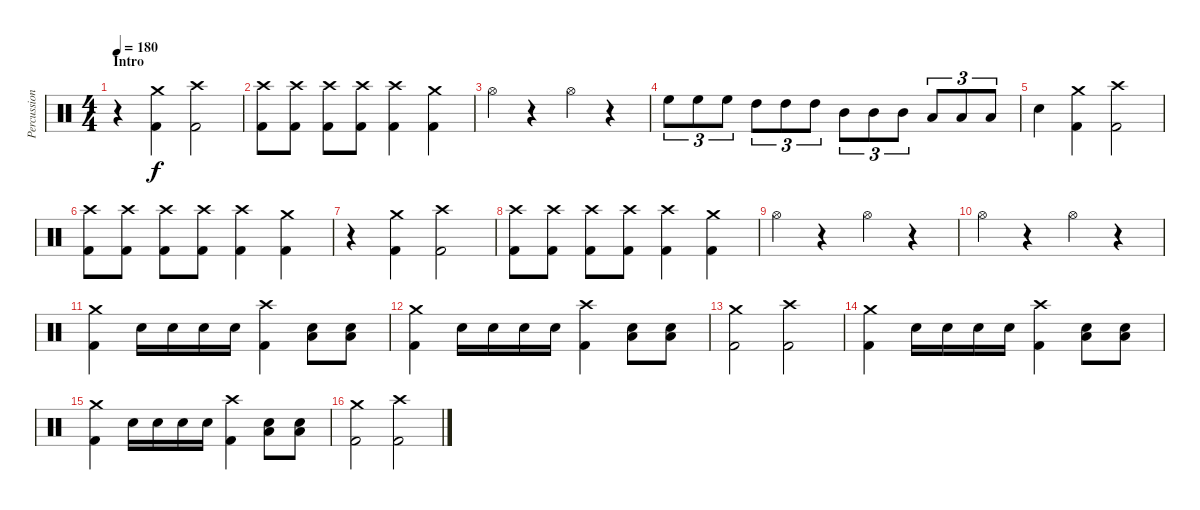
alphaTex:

\track ("Percussion" "Percussion") {instrument percussion}
\staff {score}
\articulation defaults
\ts (4 4)
\section ("" "Intro")
\tempo 180
\clef neutral
\ks c
r.4{dy f} ("Crash medium (hit)" "Kick (hit) 2").4 ("Crash high (hit)" "Kick (hit) 2").2 |
("Crash high (hit)" "Kick (hit) 2").8 ("Crash high (hit)" "Kick (hit) 2").8 ("Crash high (hit)" "Kick (hit) 2").8 ("Crash high (hit)" "Kick (hit) 2").8 ("Crash high (hit)" "Kick (hit) 2").4 ("Crash medium (hit)" "Kick (hit) 2").4 |
"Hi-Hat (open)".4 r.4 "Hi-Hat (open)".4 r.4 |
"High Floor Tom (hit)".8{tu (3 2)} "High Floor Tom (hit)".8{tu (3 2)} "High Floor Tom (hit)".8{tu (3 2)} "High Tom (hit)".8{tu (3 2)} "High Tom (hit)".8{tu (3 2)} "High Tom (hit)".8{tu (3 2)} "Mid Tom (hit)".8{tu (3 2)} "Mid Tom (hit)".8{tu (3 2)} "Mid Tom (hit)".8{tu (3 2)} "Low Tom (hit)".8{tu (3 2)} "Low Tom (hit)".8{tu (3 2)} "Low Tom (hit)".8{tu (3 2)} |
"Snare (hit) 2".4 ("Crash medium (hit)" "Kick (hit) 2").4 ("Crash high (hit)" "Kick (hit) 2").2 |
("Crash high (hit)" "Kick (hit) 2").8 ("Crash high (hit)" "Kick (hit) 2").8 ("Crash high (hit)" "Kick (hit) 2").8 ("Crash high (hit)" "Kick (hit) 2").8 ("Crash high (hit)" "Kick (hit) 2").4 ("Crash medium (hit)" "Kick (hit) 2").4 |
r.4 ("Crash medium (hit)" "Kick (hit) 2").4 ("Crash high (hit)" "Kick (hit) 2").2 |
("Crash high (hit)" "Kick (hit) 2").8 ("Crash high (hit)" "Kick (hit) 2").8 ("Crash high (hit)" "Kick (hit) 2").8 ("Crash high (hit)" "Kick (hit) 2").8 ("Crash high (hit)" "Kick (hit) 2").4 ("Crash medium (hit)" "Kick (hit) 2").4 |
"Hi-Hat (open)".4 r.4 "Hi-Hat (open)".4 r.4 |
"Hi-Hat (open)".4 r.4 "Hi-Hat (open)".4 r.4 |
("Crash medium (hit)" "Kick (hit) 2").4 "Snare (hit) 2".16 "Snare (hit) 2".16 "Snare (hit) 2".16 "Snare (hit) 2".16 ("Crash high (hit)" "Kick (hit) 2").4 ("Snare (hit) 2" "Low Tom (hit)").8 ("Snare (hit) 2" "Low Tom (hit)").8 |
("Crash medium (hit)" "Kick (hit) 2").4 "Snare (hit) 2".16 "Snare (hit) 2".16 "Snare (hit) 2".16 "Snare (hit) 2".16 ("Crash high (hit)" "Kick (hit) 2").4 ("Snare (hit) 2" "Low Tom (hit)").8 ("Snare (hit) 2" "Low Tom (hit)").8 |
("Crash medium (hit)" "Kick (hit) 2").2 ("Crash high (hit)" "Kick (hit) 2").2 |
("Crash medium (hit)" "Kick (hit) 2").4 "Snare (hit) 2".16 "Snare (hit) 2".16 "Snare (hit) 2".16 "Snare (hit) 2".16 ("Crash high (hit)" "Kick (hit) 2").4 ("Snare (hit) 2" "Low Tom (hit)").8 ("Snare (hit) 2" "Low Tom (hit)").8 |
("Crash medium (hit)" "Kick (hit) 2").4 "Snare (hit) 2".16 "Snare (hit) 2".16 "Snare (hit) 2".16 "Snare (hit) 2".16 ("Crash high (hit)" "Kick (hit) 2").4 ("Snare (hit) 2" "Low Tom (hit)").8 ("Snare (hit) 2" "Low Tom (hit)").8 |
("Crash medium (hit)" "Kick (hit) 2").2 ("Crash high (hit)" "Kick (hit) 2").2
